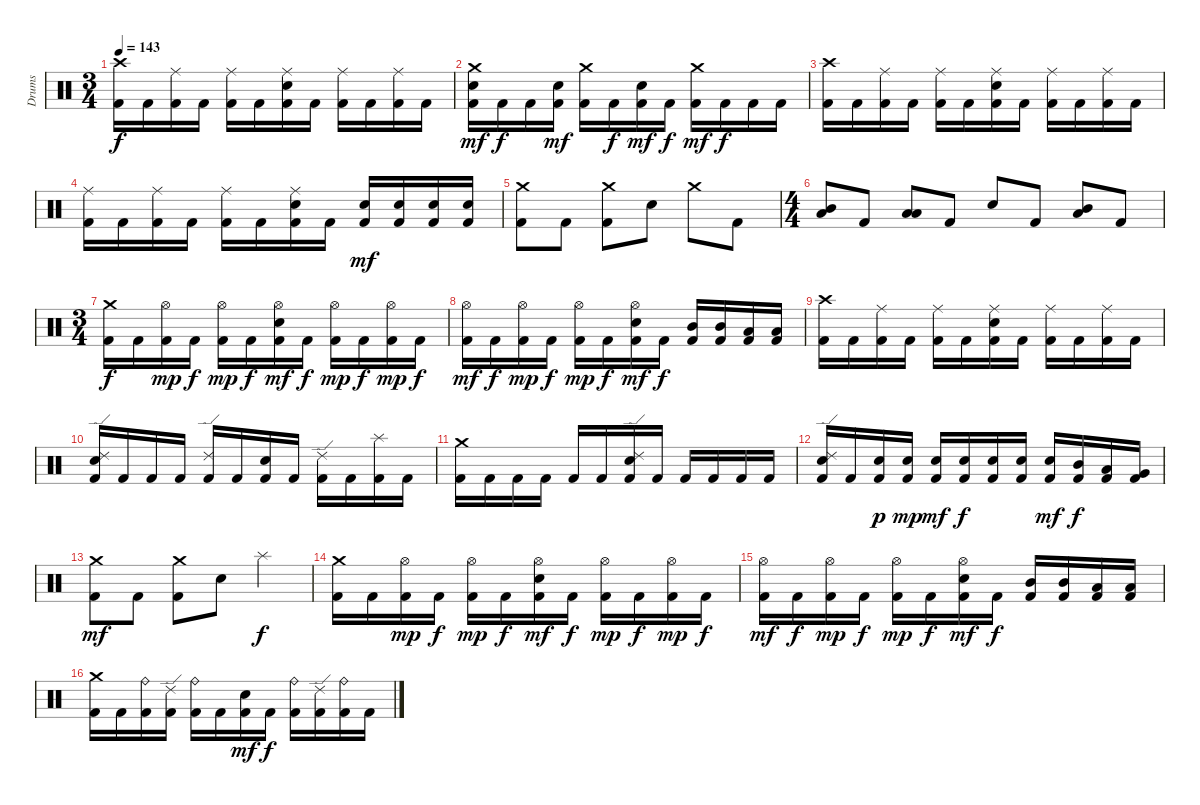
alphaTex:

\track ("Drums" "Drums") {instrument percussion}
\staff {score}
\articulation defaults
\ts (3 4)
\tempo 143
\clef neutral
\ks c
("Crash high (hit)" "Kick (hit) 2").16{dy f} "Kick (hit) 2".16 ("Ride (middle)" "Kick (hit) 2").16 "Kick (hit) 2".16 ("Ride (middle)" "Kick (hit) 2").16 "Kick (hit) 2".16 ("Ride (middle)" "Electric Snare (hit)" "Kick (hit) 2").16 "Kick (hit) 2".16 ("Ride (middle)" "Kick (hit) 2").16 "Kick (hit) 2".16 ("Ride (middle)" "Kick (hit) 2").16 "Kick (hit) 2".16 |
("Crash medium (hit)" "Electric Snare (hit)" "Kick (hit) 2").16{dy mf} "Kick (hit) 2".16{dy f} "Kick (hit) 2".16 ("Electric Snare (hit)" "Kick (hit) 2").16{dy mf} ("Crash medium (hit)" "Kick (hit) 2").16 "Kick (hit) 2".16{dy f} ("Electric Snare (hit)" "Kick (hit) 2").16{dy mf} "Kick (hit) 2".16{dy f} ("Crash medium (hit)" "Kick (hit) 2").16{dy mf} "Kick (hit) 2".16{dy f} "Kick (hit) 2".16 "Kick (hit) 2".16 |
("Crash high (hit)" "Kick (hit) 2").16 "Kick (hit) 2".16 ("Ride (middle)" "Kick (hit) 2").16 "Kick (hit) 2".16 ("Ride (middle)" "Kick (hit) 2").16 "Kick (hit) 2".16 ("Ride (middle)" "Electric Snare (hit)" "Kick (hit) 2").16 "Kick (hit) 2".16 ("Ride (middle)" "Kick (hit) 2").16 "Kick (hit) 2".16 ("Ride (middle)" "Kick (hit) 2").16 "Kick (hit) 2".16 |
("Ride (middle)" "Kick (hit) 2").16 "Kick (hit) 2".16 ("Ride (middle)" "Kick (hit) 2").16 "Kick (hit) 2".16 ("Ride (middle)" "Kick (hit) 2").16 "Kick (hit) 2".16 ("Ride (middle)" "Electric Snare (hit)" "Kick (hit) 2").16 "Kick (hit) 2".16 ("Electric Snare (hit)" "Kick (hit) 2").16{dy mf} ("Electric Snare (hit)" "Kick (hit) 2").16 ("Electric Snare (hit)" "Kick (hit) 2").16 ("Electric Snare (hit)" "Kick (hit) 2").16 |
("Crash medium (hit)" "Kick (hit) 2").8 "Kick (hit) 2".8 ("Crash medium (hit)" "Kick (hit) 2").8 "Electric Snare (hit)".8 "Crash medium (hit)".8 "Kick (hit) 2".8 |
\ts (4 4)
("Mid Tom (hit)" "Low Tom (hit)").8 "Kick (hit) 2".8 ("Low Tom (hit)" "Low Tom (hit)").8 "Kick (hit) 2".8 "Electric Snare (hit)".8 "Kick (hit) 2".8 ("Mid Tom (hit)" "Low Tom (hit)").8 "Kick (hit) 2".8 |
\ts (3 4)
("Crash medium (hit)" "Kick (hit) 2").16{dy f} "Kick (hit) 2".16 ("Hi-Hat (open)" "Kick (hit) 2").16{dy mp} "Kick (hit) 2".16{dy f} ("Hi-Hat (open)" "Kick (hit) 2").16{dy mp} "Kick (hit) 2".16{dy f} ("Hi-Hat (open)" "Electric Snare (hit)" "Kick (hit) 2").16{dy mf} "Kick (hit) 2".16{dy f} ("Hi-Hat (open)" "Kick (hit) 2").16{dy mp} "Kick (hit) 2".16{dy f} ("Hi-Hat (open)" "Kick (hit) 2").16{dy mp} "Kick (hit) 2".16{dy f} |
("Hi-Hat (open)" "Kick (hit) 2").16{dy mf} "Kick (hit) 2".16{dy f} ("Hi-Hat (open)" "Kick (hit) 2").16{dy mp} "Kick (hit) 2".16{dy f} ("Hi-Hat (open)" "Kick (hit) 2").16{dy mp} "Kick (hit) 2".16{dy f} ("Hi-Hat (open)" "Electric Snare (hit)" "Kick (hit) 2").16{dy mf} "Kick (hit) 2".16{dy f} ("Mid Tom (hit)" "Kick (hit) 2").16 ("Mid Tom (hit)" "Kick (hit) 2").16 ("Low Tom (hit)" "Kick (hit) 2").16 ("Low Tom (hit)" "Kick (hit) 2").16 |
("Crash high (hit)" "Kick (hit) 2").16 "Kick (hit) 2".16 ("Ride (middle)" "Kick (hit) 2").16 "Kick (hit) 2".16 ("Ride (middle)" "Kick (hit) 2").16 "Kick (hit) 2".16 ("Ride (middle)" "Electric Snare (hit)" "Kick (hit) 2").16 "Kick (hit) 2".16 ("Ride (middle)" "Kick (hit) 2").16 "Kick (hit) 2".16 ("Ride (middle)" "Kick (hit) 2").16 "Kick (hit) 2".16 |
("Ride (edge) 2" "Electric Snare (hit)" "Kick (hit) 2").16 "Kick (hit) 2".16 "Kick (hit) 2".16 "Kick (hit) 2".16 ("Ride (edge) 2" "Kick (hit) 2").16 "Kick (hit) 2".16 ("Electric Snare (hit)" "Kick (hit) 2").16 "Kick (hit) 2".16 ("Ride (edge) 2" "Kick (hit) 2").16 "Kick (hit) 2".16 ("Splash (hit)" "Kick (hit) 2").16 "Kick (hit) 2".16 |
("Crash medium (hit)" "Kick (hit) 2").16 "Kick (hit) 2".16 "Kick (hit) 2".16 "Kick (hit) 2".16 "Kick (hit) 2".16 "Kick (hit) 2".16 ("Ride (edge) 2" "Electric Snare (hit)" "Kick (hit) 2").16 "Kick (hit) 2".16 "Kick (hit) 2".16 "Kick (hit) 2".16 "Kick (hit) 2".16 "Kick (hit) 2".16 |
("Ride (edge) 2" "Electric Snare (hit)" "Kick (hit) 2").16 "Kick (hit) 2".16 ("Electric Snare (hit)" "Kick (hit) 2").16{dy p} ("Electric Snare (hit)" "Kick (hit) 2").16{dy mp} ("Electric Snare (hit)" "Kick (hit) 2").16{dy mf} ("Electric Snare (hit)" "Kick (hit) 2").16{dy f} ("Electric Snare (hit)" "Kick (hit) 2").16 ("Electric Snare (hit)" "Kick (hit) 2").16 ("Electric Snare (hit)" "Kick (hit) 2").16{dy mf} ("Mid Tom (hit)" "Kick (hit) 2").16{dy f} ("Low Tom (hit)" "Kick (hit) 2").16 ("Very Low Tom (hit)" "Kick (hit) 2").16 |
("Crash medium (hit)" "Kick (hit) 2").8{dy mf} "Kick (hit) 2".8 ("Crash medium (hit)" "Kick (hit) 2").8 "Electric Snare (hit)".8 "Splash (hit)".4{dy f} |
("Crash medium (hit)" "Kick (hit) 2").16 "Kick (hit) 2".16 ("Hi-Hat (open)" "Kick (hit) 2").16{dy mp} "Kick (hit) 2".16{dy f} ("Hi-Hat (open)" "Kick (hit) 2").16{dy mp} "Kick (hit) 2".16{dy f} ("Hi-Hat (open)" "Electric Snare (hit)" "Kick (hit) 2").16{dy mf} "Kick (hit) 2".16{dy f} ("Hi-Hat (open)" "Kick (hit) 2").16{dy mp} "Kick (hit) 2".16{dy f} ("Hi-Hat (open)" "Kick (hit) 2").16{dy mp} "Kick (hit) 2".16{dy f} |
("Hi-Hat (open)" "Kick (hit) 2").16{dy mf} "Kick (hit) 2".16{dy f} ("Hi-Hat (open)" "Kick (hit) 2").16{dy mp} "Kick (hit) 2".16{dy f} ("Hi-Hat (open)" "Kick (hit) 2").16{dy mp} "Kick (hit) 2".16{dy f} ("Hi-Hat (open)" "Electric Snare (hit)" "Kick (hit) 2").16{dy mf} "Kick (hit) 2".16{dy f} ("Mid Tom (hit)" "Kick (hit) 2").16 ("Mid Tom (hit)" "Kick (hit) 2").16 ("Low Tom (hit)" "Kick (hit) 2").16 ("Low Tom (hit)" "Kick (hit) 2").16 |
("Crash medium (hit)" "Kick (hit) 2").16 "Kick (hit) 2".16 ("Ride (bell)" "Kick (hit) 2").16 ("Ride (edge) 2" "Kick (hit) 2").16 ("Ride (bell)" "Kick (hit) 2").16 "Kick (hit) 2".16 ("Electric Snare (hit)" "Kick (hit) 2").16{dy mf} "Kick (hit) 2".16{dy f} ("Ride (bell)" "Kick (hit) 2").16 ("Ride (edge) 2" "Kick (hit) 2").16 ("Ride (bell)" "Kick (hit) 2").16 "Kick (hit) 2".16
